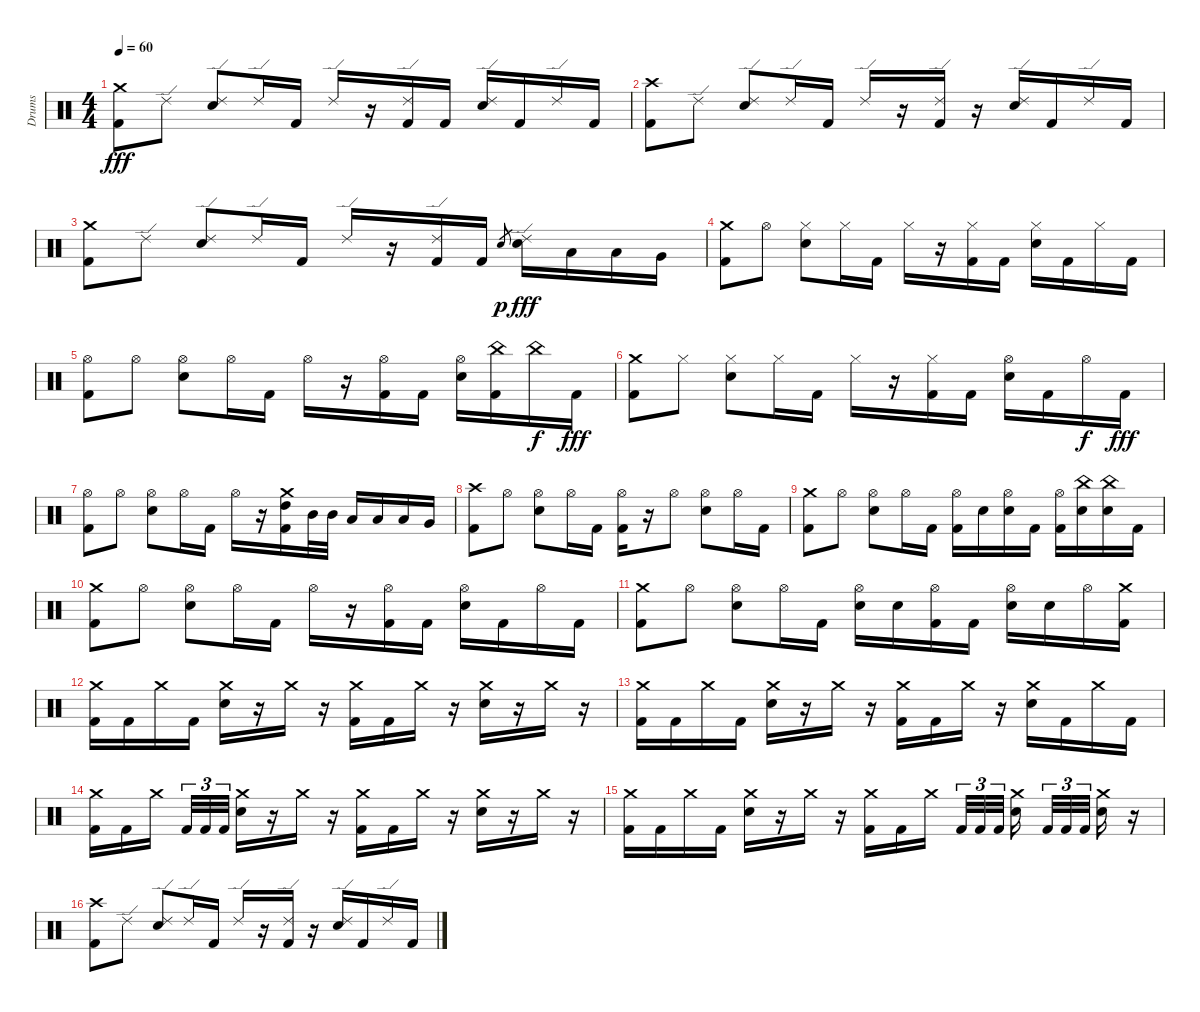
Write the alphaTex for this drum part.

\track ("Drums" "Drums") {instrument percussion}
\staff {score}
\articulation defaults
\ts (4 4)
\tempo 60
\clef neutral
\ks c
("Crash medium (hit)" "Kick (hit) 2").8{dy fff} "Ride (edge) 2".8 ("Ride (edge) 2" "Electric Snare (hit)").8 "Ride (edge) 2".16 "Kick (hit) 2".16 "Ride (edge) 2".16 r.16 ("Ride (edge) 2" "Kick (hit) 2").16 "Kick (hit) 2".16 ("Ride (edge) 2" "Electric Snare (hit)").16 "Kick (hit) 2".16 "Ride (edge) 2".16 "Kick (hit) 2".16 |
("Crash high (hit)" "Kick (hit) 2").8 "Ride (edge) 2".8 ("Ride (edge) 2" "Electric Snare (hit)").8 "Ride (edge) 2".16 "Kick (hit) 2".16 "Ride (edge) 2".16 r.16 ("Ride (edge) 2" "Kick (hit) 2").16 r.16 ("Ride (edge) 2" "Electric Snare (hit)").16 "Kick (hit) 2".16 "Ride (edge) 2".16 "Kick (hit) 2".16 |
("Crash medium (hit)" "Kick (hit) 2").8 "Ride (edge) 2".8 ("Ride (edge) 2" "Electric Snare (hit)").8 "Ride (edge) 2".16 "Kick (hit) 2".16 "Ride (edge) 2".16 r.16 ("Ride (edge) 2" "Kick (hit) 2").16 "Kick (hit) 2".16 "Electric Snare (hit)".8{gr dy p} ("Ride (edge) 2" "Electric Snare (hit)").16{dy fff} "Low Tom (hit)".16 "Low Tom (hit)".16 "Very Low Tom (hit)".16 |
("Crash medium (hit)" "Kick (hit) 2").8 "Hi-Hat (open)".8 ("Hi-Hat (closed)" "Electric Snare (hit)").8 "Hi-Hat (closed)".16 "Kick (hit) 2".16 "Hi-Hat (closed)".16 r.16 ("Hi-Hat (closed)" "Kick (hit) 2").16 "Kick (hit) 2".16 ("Hi-Hat (closed)" "Electric Snare (hit)").16 "Kick (hit) 2".16 "Hi-Hat (closed)".16 "Kick (hit) 2".16 |
("Hi-Hat (open)" "Kick (hit) 2").8 "Hi-Hat (open)".8 ("Hi-Hat (open)" "Electric Snare (hit)").8 "Hi-Hat (open)".16 "Kick (hit) 2".16 "Hi-Hat (open)".16 r.16 ("Hi-Hat (open)" "Kick (hit) 2").16 "Kick (hit) 2".16 ("Hi-Hat (open)" "Electric Snare (hit)").16 ("China (hit)" "Kick (hit) 2").16 "China (hit)".16{dy f} "Kick (hit) 2".16{dy fff} |
("Crash medium (hit)" "Kick (hit) 2").8 "Hi-Hat (closed)".8 ("Hi-Hat (closed)" "Electric Snare (hit)").8 "Hi-Hat (closed)".16 "Kick (hit) 2".16 "Hi-Hat (closed)".16 r.16 ("Hi-Hat (closed)" "Kick (hit) 2").16 "Kick (hit) 2".16 ("Hi-Hat (open)" "Electric Snare (hit)").16 "Kick (hit) 2".16 "Hi-Hat (open)".16{dy f} "Kick (hit) 2".16{dy fff} |
("Hi-Hat (open)" "Kick (hit) 2").8 "Hi-Hat (open)".8 ("Hi-Hat (open)" "Electric Snare (hit)").8 "Hi-Hat (open)".16 "Kick (hit) 2".16 "Hi-Hat (open)".16 r.16 ("Crash medium (hit)" "High Tom (hit)" "Kick (hit) 2").16 "Mid Tom (hit)".32 "Mid Tom (hit)".32 "Low Tom (hit)".16 "Low Tom (hit)".16 "Low Tom (hit)".16 "Very Low Tom (hit)".16 |
("Crash high (hit)" "Kick (hit) 2").8 "Hi-Hat (open)".8 ("Hi-Hat (open)" "Electric Snare (hit)").8 "Hi-Hat (open)".16 "Kick (hit) 2".16 ("Hi-Hat (open)" "Kick (hit) 2").16 r.16 "Hi-Hat (open)".8 ("Hi-Hat (open)" "Electric Snare (hit)").8 "Hi-Hat (open)".16 "Kick (hit) 2".16 |
("Crash medium (hit)" "Kick (hit) 2").8 "Hi-Hat (open)".8 ("Hi-Hat (open)" "Electric Snare (hit)").8 "Hi-Hat (open)".16 "Kick (hit) 2".16 ("Hi-Hat (open)" "Kick (hit) 2").16 "Electric Snare (hit)".16 ("Hi-Hat (open)" "Electric Snare (hit)").16 "Kick (hit) 2".16 ("Hi-Hat (open)" "Kick (hit) 2").16 ("China (hit)" "Electric Snare (hit)").16 ("China (hit)" "Electric Snare (hit)").16 "Kick (hit) 2".16 |
("Crash medium (hit)" "Kick (hit) 2").8 "Hi-Hat (open)".8 ("Hi-Hat (open)" "Electric Snare (hit)").8 "Hi-Hat (open)".16 "Kick (hit) 2".16 "Hi-Hat (open)".16 r.16 ("Hi-Hat (open)" "Kick (hit) 2").16 "Kick (hit) 2".16 ("Hi-Hat (open)" "Electric Snare (hit)").16 "Kick (hit) 2".16 "Hi-Hat (open)".16 "Kick (hit) 2".16 |
("Crash medium (hit)" "Kick (hit) 2").8 "Hi-Hat (open)".8 ("Hi-Hat (open)" "Electric Snare (hit)").8 "Hi-Hat (open)".16 "Kick (hit) 2".16 ("Hi-Hat (open)" "Electric Snare (hit)").16 "Electric Snare (hit)".16 ("Hi-Hat (open)" "Kick (hit) 2").16 "Kick (hit) 2".16 ("Hi-Hat (open)" "Electric Snare (hit)").16 "Electric Snare (hit)".16 "Hi-Hat (open)".16 ("Crash medium (hit)" "Kick (hit) 2").16 |
("Crash medium (hit)" "Kick (hit) 2").16 "Kick (hit) 2".16 "Crash medium (hit)".16 "Kick (hit) 2".16 ("Crash medium (hit)" "Electric Snare (hit)").16 r.16 "Crash medium (hit)".16 r.16 ("Crash medium (hit)" "Kick (hit) 2").16 "Kick (hit) 2".16 "Crash medium (hit)".16 r.16 ("Crash medium (hit)" "Electric Snare (hit)").16 r.16 "Crash medium (hit)".16 r.16 |
("Crash medium (hit)" "Kick (hit) 2").16 "Kick (hit) 2".16 "Crash medium (hit)".16 "Kick (hit) 2".16 ("Crash medium (hit)" "Electric Snare (hit)").16 r.16 "Crash medium (hit)".16 r.16 ("Crash medium (hit)" "Kick (hit) 2").16 "Kick (hit) 2".16 "Crash medium (hit)".16 r.16 ("Crash medium (hit)" "Electric Snare (hit)").16 "Kick (hit) 2".16 "Crash medium (hit)".16 "Kick (hit) 2".16 |
("Crash medium (hit)" "Kick (hit) 2").16 "Kick (hit) 2".16 "Crash medium (hit)".16 "Kick (hit) 2".32{tu (3 2)} "Kick (hit) 2".32{tu (3 2)} "Kick (hit) 2".32{tu (3 2)} ("Crash medium (hit)" "Electric Snare (hit)").16 r.16 "Crash medium (hit)".16 r.16 ("Crash medium (hit)" "Kick (hit) 2").16 "Kick (hit) 2".16 "Crash medium (hit)".16 r.16 ("Crash medium (hit)" "Electric Snare (hit)").16 r.16 "Crash medium (hit)".16 r.16 |
("Crash medium (hit)" "Kick (hit) 2").16 "Kick (hit) 2".16 "Crash medium (hit)".16 "Kick (hit) 2".16 ("Crash medium (hit)" "Electric Snare (hit)").16 r.16 "Crash medium (hit)".16 r.16 ("Crash medium (hit)" "Kick (hit) 2").16 "Kick (hit) 2".16 "Crash medium (hit)".16 "Kick (hit) 2".32{tu (3 2)} "Kick (hit) 2".32{tu (3 2)} "Kick (hit) 2".32{tu (3 2)} ("Crash medium (hit)" "Electric Snare (hit)").16 "Kick (hit) 2".32{tu (3 2)} "Kick (hit) 2".32{tu (3 2)} "Kick (hit) 2".32{tu (3 2)} ("Crash medium (hit)" "Electric Snare (hit)").16 r.16 |
("Crash high (hit)" "Kick (hit) 2").8 "Ride (edge) 2".8 ("Ride (edge) 2" "Electric Snare (hit)").8 "Ride (edge) 2".16 "Kick (hit) 2".16 "Ride (edge) 2".16 r.16 ("Ride (edge) 2" "Kick (hit) 2").16 r.16 ("Ride (edge) 2" "Electric Snare (hit)").16 "Kick (hit) 2".16 "Ride (edge) 2".16 "Kick (hit) 2".16
